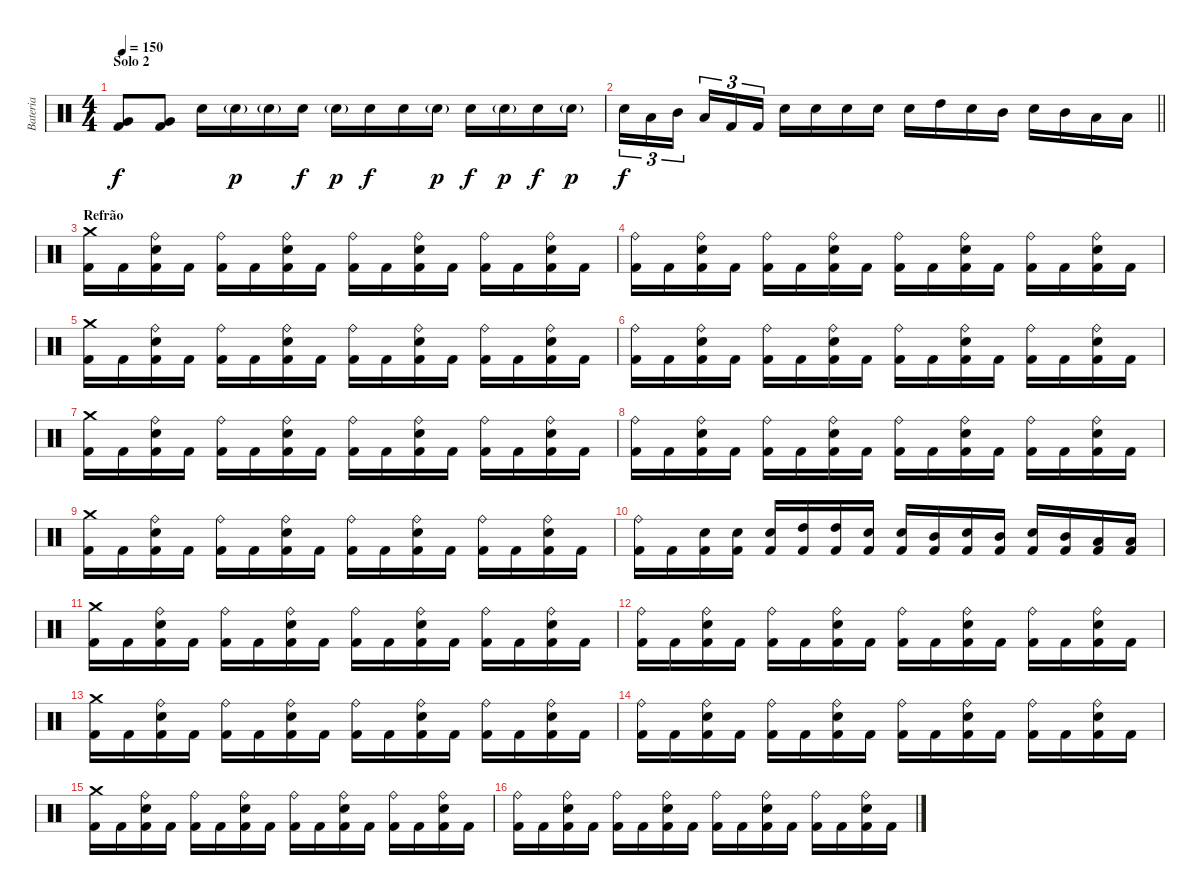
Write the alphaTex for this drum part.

\track ("Bateria" "Bateria") {instrument percussion}
\staff {score}
\articulation defaults
\ts (4 4)
\section ("" "Solo 2")
\tempo 150
\clef neutral
\ks c
("Very Low Tom (hit)" "Kick (hit) 2").8{dy f} ("Very Low Tom (hit)" "Kick (hit) 2").8 "Electric Snare (hit)".16 "Electric Snare (hit)"{g}.16{dy p} "Electric Snare (hit)"{g}.16 "Electric Snare (hit)".16{dy f} "Electric Snare (hit)"{g}.16{dy p} "Electric Snare (hit)".16{dy f} "Electric Snare (hit)".16 "Electric Snare (hit)"{g}.16{dy p} "Electric Snare (hit)".16{dy f} "Electric Snare (hit)"{g}.16{dy p} "Electric Snare (hit)".16{dy f} "Electric Snare (hit)"{g}.16{dy p} |
\barLineRight lightlight "Electric Snare (hit)".16{tu (3 2) dy f} "Low Tom (hit)".16{tu (3 2)} "Mid Tom (hit)".16{tu (3 2) beam splitsecondary} "Low Tom (hit)".16{tu (3 2)} "Kick (hit) 2".16{tu (3 2)} "Kick (hit) 2".16{tu (3 2)} "Electric Snare (hit)".16 "Electric Snare (hit)".16 "Electric Snare (hit)".16 "Electric Snare (hit)".16 "Electric Snare (hit)".16 "High Tom (hit)".16 "Electric Snare (hit)".16 "Mid Tom (hit)".16 "Electric Snare (hit)".16 "Mid Tom (hit)".16 "Low Tom (hit)".16 "Low Tom (hit)".16
|
\section ("" "Refrão")
("Crash medium (hit)" "Kick (hit) 2").16 "Kick (hit) 2".16 ("Ride (bell)" "Electric Snare (hit)" "Kick (hit) 2").16 "Kick (hit) 2".16 ("Ride (bell)" "Kick (hit) 2").16 "Kick (hit) 2".16 ("Ride (bell)" "Electric Snare (hit)" "Kick (hit) 2").16 "Kick (hit) 2".16 ("Ride (bell)" "Kick (hit) 2").16 "Kick (hit) 2".16 ("Ride (bell)" "Electric Snare (hit)" "Kick (hit) 2").16 "Kick (hit) 2".16 ("Ride (bell)" "Kick (hit) 2").16 "Kick (hit) 2".16 ("Ride (bell)" "Electric Snare (hit)" "Kick (hit) 2").16 "Kick (hit) 2".16 |
("Ride (bell)" "Kick (hit) 2").16 "Kick (hit) 2".16 ("Ride (bell)" "Electric Snare (hit)" "Kick (hit) 2").16 "Kick (hit) 2".16 ("Ride (bell)" "Kick (hit) 2").16 "Kick (hit) 2".16 ("Ride (bell)" "Electric Snare (hit)" "Kick (hit) 2").16 "Kick (hit) 2".16 ("Ride (bell)" "Kick (hit) 2").16 "Kick (hit) 2".16 ("Ride (bell)" "Electric Snare (hit)" "Kick (hit) 2").16 "Kick (hit) 2".16 ("Ride (bell)" "Kick (hit) 2").16 "Kick (hit) 2".16 ("Ride (bell)" "Electric Snare (hit)" "Kick (hit) 2").16 "Kick (hit) 2".16 |
("Crash medium (hit)" "Kick (hit) 2").16 "Kick (hit) 2".16 ("Ride (bell)" "Electric Snare (hit)" "Kick (hit) 2").16 "Kick (hit) 2".16 ("Ride (bell)" "Kick (hit) 2").16 "Kick (hit) 2".16 ("Ride (bell)" "Electric Snare (hit)" "Kick (hit) 2").16 "Kick (hit) 2".16 ("Ride (bell)" "Kick (hit) 2").16 "Kick (hit) 2".16 ("Ride (bell)" "Electric Snare (hit)" "Kick (hit) 2").16 "Kick (hit) 2".16 ("Ride (bell)" "Kick (hit) 2").16 "Kick (hit) 2".16 ("Ride (bell)" "Electric Snare (hit)" "Kick (hit) 2").16 "Kick (hit) 2".16 |
("Ride (bell)" "Kick (hit) 2").16 "Kick (hit) 2".16 ("Ride (bell)" "Electric Snare (hit)" "Kick (hit) 2").16 "Kick (hit) 2".16 ("Ride (bell)" "Kick (hit) 2").16 "Kick (hit) 2".16 ("Ride (bell)" "Electric Snare (hit)" "Kick (hit) 2").16 "Kick (hit) 2".16 ("Ride (bell)" "Kick (hit) 2").16 "Kick (hit) 2".16 ("Ride (bell)" "Electric Snare (hit)" "Kick (hit) 2").16 "Kick (hit) 2".16 ("Ride (bell)" "Kick (hit) 2").16 "Kick (hit) 2".16 ("Ride (bell)" "Electric Snare (hit)" "Kick (hit) 2").16 "Kick (hit) 2".16 |
("Crash medium (hit)" "Kick (hit) 2").16 "Kick (hit) 2".16 ("Ride (bell)" "Electric Snare (hit)" "Kick (hit) 2").16 "Kick (hit) 2".16 ("Ride (bell)" "Kick (hit) 2").16 "Kick (hit) 2".16 ("Ride (bell)" "Electric Snare (hit)" "Kick (hit) 2").16 "Kick (hit) 2".16 ("Ride (bell)" "Kick (hit) 2").16 "Kick (hit) 2".16 ("Ride (bell)" "Electric Snare (hit)" "Kick (hit) 2").16 "Kick (hit) 2".16 ("Ride (bell)" "Kick (hit) 2").16 "Kick (hit) 2".16 ("Ride (bell)" "Electric Snare (hit)" "Kick (hit) 2").16 "Kick (hit) 2".16 |
("Ride (bell)" "Kick (hit) 2").16 "Kick (hit) 2".16 ("Ride (bell)" "Electric Snare (hit)" "Kick (hit) 2").16 "Kick (hit) 2".16 ("Ride (bell)" "Kick (hit) 2").16 "Kick (hit) 2".16 ("Ride (bell)" "Electric Snare (hit)" "Kick (hit) 2").16 "Kick (hit) 2".16 ("Ride (bell)" "Kick (hit) 2").16 "Kick (hit) 2".16 ("Ride (bell)" "Electric Snare (hit)" "Kick (hit) 2").16 "Kick (hit) 2".16 ("Ride (bell)" "Kick (hit) 2").16 "Kick (hit) 2".16 ("Ride (bell)" "Electric Snare (hit)" "Kick (hit) 2").16 "Kick (hit) 2".16 |
("Crash medium (hit)" "Kick (hit) 2").16 "Kick (hit) 2".16 ("Ride (bell)" "Electric Snare (hit)" "Kick (hit) 2").16 "Kick (hit) 2".16 ("Ride (bell)" "Kick (hit) 2").16 "Kick (hit) 2".16 ("Ride (bell)" "Electric Snare (hit)" "Kick (hit) 2").16 "Kick (hit) 2".16 ("Ride (bell)" "Kick (hit) 2").16 "Kick (hit) 2".16 ("Ride (bell)" "Electric Snare (hit)" "Kick (hit) 2").16 "Kick (hit) 2".16 ("Ride (bell)" "Kick (hit) 2").16 "Kick (hit) 2".16 ("Ride (bell)" "Electric Snare (hit)" "Kick (hit) 2").16 "Kick (hit) 2".16 |
("Ride (bell)" "Kick (hit) 2").16 "Kick (hit) 2".16 ("Electric Snare (hit)" "Kick (hit) 2").16 ("Electric Snare (hit)" "Kick (hit) 2").16 ("Electric Snare (hit)" "Kick (hit) 2").16 ("High Tom (hit)" "Kick (hit) 2").16 ("High Tom (hit)" "Kick (hit) 2").16 ("Electric Snare (hit)" "Kick (hit) 2").16 ("Electric Snare (hit)" "Kick (hit) 2").16 ("Mid Tom (hit)" "Kick (hit) 2").16 ("Electric Snare (hit)" "Kick (hit) 2").16 ("Mid Tom (hit)" "Kick (hit) 2").16 ("Electric Snare (hit)" "Kick (hit) 2").16 ("Mid Tom (hit)" "Kick (hit) 2").16 ("Low Tom (hit)" "Kick (hit) 2").16 ("Low Tom (hit)" "Kick (hit) 2").16 |
("Crash medium (hit)" "Kick (hit) 2").16 "Kick (hit) 2".16 ("Ride (bell)" "Electric Snare (hit)" "Kick (hit) 2").16 "Kick (hit) 2".16 ("Ride (bell)" "Kick (hit) 2").16 "Kick (hit) 2".16 ("Ride (bell)" "Electric Snare (hit)" "Kick (hit) 2").16 "Kick (hit) 2".16 ("Ride (bell)" "Kick (hit) 2").16 "Kick (hit) 2".16 ("Ride (bell)" "Electric Snare (hit)" "Kick (hit) 2").16 "Kick (hit) 2".16 ("Ride (bell)" "Kick (hit) 2").16 "Kick (hit) 2".16 ("Ride (bell)" "Electric Snare (hit)" "Kick (hit) 2").16 "Kick (hit) 2".16 |
("Ride (bell)" "Kick (hit) 2").16 "Kick (hit) 2".16 ("Ride (bell)" "Electric Snare (hit)" "Kick (hit) 2").16 "Kick (hit) 2".16 ("Ride (bell)" "Kick (hit) 2").16 "Kick (hit) 2".16 ("Ride (bell)" "Electric Snare (hit)" "Kick (hit) 2").16 "Kick (hit) 2".16 ("Ride (bell)" "Kick (hit) 2").16 "Kick (hit) 2".16 ("Ride (bell)" "Electric Snare (hit)" "Kick (hit) 2").16 "Kick (hit) 2".16 ("Ride (bell)" "Kick (hit) 2").16 "Kick (hit) 2".16 ("Ride (bell)" "Electric Snare (hit)" "Kick (hit) 2").16 "Kick (hit) 2".16 |
("Crash medium (hit)" "Kick (hit) 2").16 "Kick (hit) 2".16 ("Ride (bell)" "Electric Snare (hit)" "Kick (hit) 2").16 "Kick (hit) 2".16 ("Ride (bell)" "Kick (hit) 2").16 "Kick (hit) 2".16 ("Ride (bell)" "Electric Snare (hit)" "Kick (hit) 2").16 "Kick (hit) 2".16 ("Ride (bell)" "Kick (hit) 2").16 "Kick (hit) 2".16 ("Ride (bell)" "Electric Snare (hit)" "Kick (hit) 2").16 "Kick (hit) 2".16 ("Ride (bell)" "Kick (hit) 2").16 "Kick (hit) 2".16 ("Ride (bell)" "Electric Snare (hit)" "Kick (hit) 2").16 "Kick (hit) 2".16 |
("Ride (bell)" "Kick (hit) 2").16 "Kick (hit) 2".16 ("Ride (bell)" "Electric Snare (hit)" "Kick (hit) 2").16 "Kick (hit) 2".16 ("Ride (bell)" "Kick (hit) 2").16 "Kick (hit) 2".16 ("Ride (bell)" "Electric Snare (hit)" "Kick (hit) 2").16 "Kick (hit) 2".16 ("Ride (bell)" "Kick (hit) 2").16 "Kick (hit) 2".16 ("Ride (bell)" "Electric Snare (hit)" "Kick (hit) 2").16 "Kick (hit) 2".16 ("Ride (bell)" "Kick (hit) 2").16 "Kick (hit) 2".16 ("Ride (bell)" "Electric Snare (hit)" "Kick (hit) 2").16 "Kick (hit) 2".16 |
("Crash medium (hit)" "Kick (hit) 2").16 "Kick (hit) 2".16 ("Ride (bell)" "Electric Snare (hit)" "Kick (hit) 2").16 "Kick (hit) 2".16 ("Ride (bell)" "Kick (hit) 2").16 "Kick (hit) 2".16 ("Ride (bell)" "Electric Snare (hit)" "Kick (hit) 2").16 "Kick (hit) 2".16 ("Ride (bell)" "Kick (hit) 2").16 "Kick (hit) 2".16 ("Ride (bell)" "Electric Snare (hit)" "Kick (hit) 2").16 "Kick (hit) 2".16 ("Ride (bell)" "Kick (hit) 2").16 "Kick (hit) 2".16 ("Ride (bell)" "Electric Snare (hit)" "Kick (hit) 2").16 "Kick (hit) 2".16 |
("Ride (bell)" "Kick (hit) 2").16 "Kick (hit) 2".16 ("Ride (bell)" "Electric Snare (hit)" "Kick (hit) 2").16 "Kick (hit) 2".16 ("Ride (bell)" "Kick (hit) 2").16 "Kick (hit) 2".16 ("Ride (bell)" "Electric Snare (hit)" "Kick (hit) 2").16 "Kick (hit) 2".16 ("Ride (bell)" "Kick (hit) 2").16 "Kick (hit) 2".16 ("Ride (bell)" "Electric Snare (hit)" "Kick (hit) 2").16 "Kick (hit) 2".16 ("Ride (bell)" "Kick (hit) 2").16 "Kick (hit) 2".16 ("Ride (bell)" "Electric Snare (hit)" "Kick (hit) 2").16 "Kick (hit) 2".16
